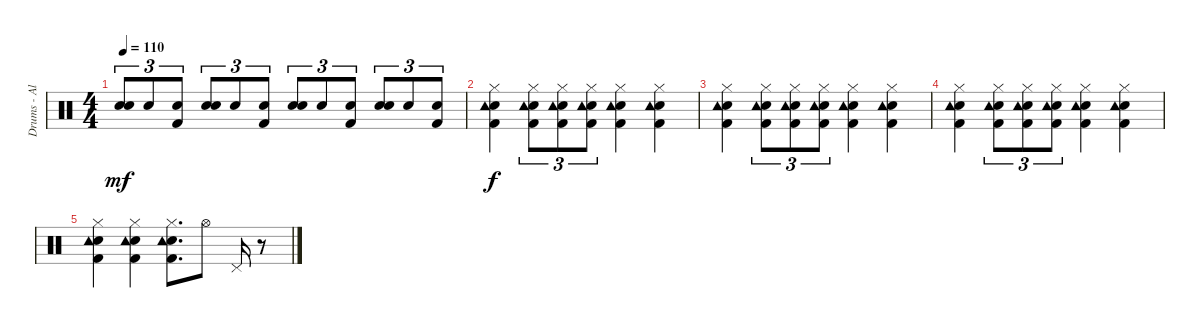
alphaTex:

\track ("Drums - Alan White" "Drums - Al") {instrument percussion}
\staff {score}
\articulation defaults
\ts (4 4)
\tempo 110
\clef neutral
\ks c
("Electric Snare (hit)" "Snare (hit) 2").8{tu (3 2) dy mf} "Snare (hit) 2".8{tu (3 2)} ("Snare (hit) 2" "Kick (hit) 2").8{tu (3 2)} ("Electric Snare (hit)" "Snare (hit) 2").8{tu (3 2)} "Snare (hit) 2".8{tu (3 2)} ("Snare (hit) 2" "Kick (hit) 2").8{tu (3 2)} ("Electric Snare (hit)" "Snare (hit) 2").8{tu (3 2)} "Snare (hit) 2".8{tu (3 2)} ("Snare (hit) 2" "Kick (hit) 2").8{tu (3 2)} ("Electric Snare (hit)" "Snare (hit) 2").8{tu (3 2)} "Snare (hit) 2".8{tu (3 2)} ("Snare (hit) 2" "Kick (hit) 2").8{tu (3 2)} |
("Snare (hit) 2" "Tambourine (hit)" "Hi-Hat (closed)" "Kick (hit) 2").4{dy f} ("Snare (hit) 2" "Tambourine (hit)" "Hi-Hat (closed)" "Kick (hit) 2").8{tu (3 2)} ("Snare (hit) 2" "Tambourine (hit)" "Hi-Hat (closed)" "Kick (hit) 2").8{tu (3 2)} ("Snare (hit) 2" "Tambourine (hit)" "Hi-Hat (closed)" "Kick (hit) 2").8{tu (3 2)} ("Snare (hit) 2" "Tambourine (hit)" "Hi-Hat (closed)" "Kick (hit) 2").4 ("Snare (hit) 2" "Tambourine (hit)" "Hi-Hat (closed)" "Kick (hit) 2").4 |
("Snare (hit) 2" "Tambourine (hit)" "Hi-Hat (closed)" "Kick (hit) 2").4 ("Snare (hit) 2" "Tambourine (hit)" "Hi-Hat (closed)" "Kick (hit) 2").8{tu (3 2)} ("Snare (hit) 2" "Tambourine (hit)" "Hi-Hat (closed)" "Kick (hit) 2").8{tu (3 2)} ("Snare (hit) 2" "Tambourine (hit)" "Hi-Hat (closed)" "Kick (hit) 2").8{tu (3 2)} ("Snare (hit) 2" "Tambourine (hit)" "Hi-Hat (closed)" "Kick (hit) 2").4 ("Snare (hit) 2" "Tambourine (hit)" "Hi-Hat (closed)" "Kick (hit) 2").4 |
("Snare (hit) 2" "Tambourine (hit)" "Hi-Hat (closed)" "Kick (hit) 2").4 ("Snare (hit) 2" "Tambourine (hit)" "Hi-Hat (closed)" "Kick (hit) 2").8{tu (3 2)} ("Snare (hit) 2" "Tambourine (hit)" "Hi-Hat (closed)" "Kick (hit) 2").8{tu (3 2)} ("Snare (hit) 2" "Tambourine (hit)" "Hi-Hat (closed)" "Kick (hit) 2").8{tu (3 2)} ("Snare (hit) 2" "Tambourine (hit)" "Hi-Hat (closed)" "Kick (hit) 2").4 ("Snare (hit) 2" "Tambourine (hit)" "Hi-Hat (closed)" "Kick (hit) 2").4 |
("Snare (hit) 2" "Tambourine (hit)" "Hi-Hat (closed)" "Kick (hit) 2").4 ("Snare (hit) 2" "Tambourine (hit)" "Hi-Hat (closed)" "Kick (hit) 2").4 ("Snare (hit) 2" "Tambourine (hit)" "Hi-Hat (closed)" "Kick (hit) 2").8{d} "Hi-Hat (open)".8 "Pedal Hi-Hat (hit)".16 r.8
